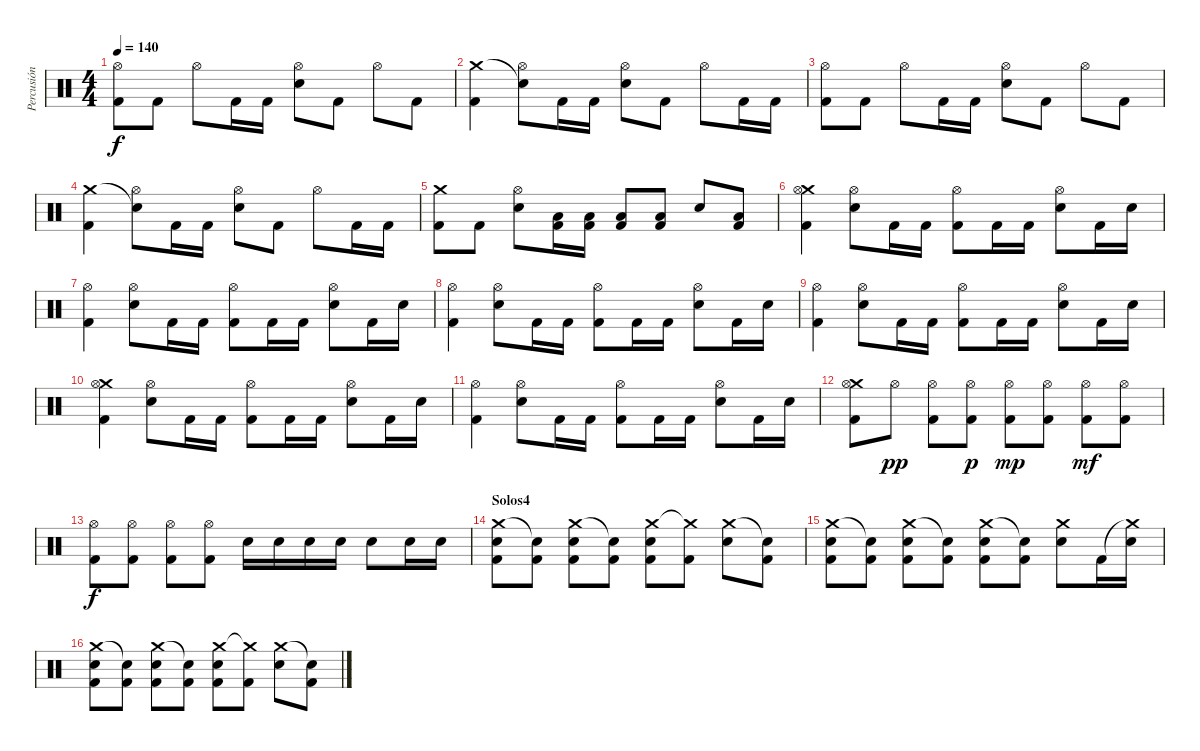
\track ("Percusión" "Percusión") {instrument percussion}
\staff {score}
\articulation defaults
\ts (4 4)
\tempo 140
\clef neutral
\ks c
("Hi-Hat (open)" "Kick (hit) 2").8{dy f} "Kick (hit) 2".8 "Hi-Hat (open)".8 "Kick (hit) 2".16 "Kick (hit) 2".16 ("Hi-Hat (open)" "Electric Snare (hit)").8 "Kick (hit) 2".8 "Hi-Hat (open)".8 "Kick (hit) 2".8 |
("Crash medium (hit)" "Kick (hit) 2").4 ("Snare (hit)"{t} "Hi-Hat (open)").8 "Kick (hit) 2".16 "Kick (hit) 2".16 ("Hi-Hat (open)" "Electric Snare (hit)").8 "Kick (hit) 2".8 "Hi-Hat (open)".8 "Kick (hit) 2".16 "Kick (hit) 2".16 |
("Hi-Hat (open)" "Kick (hit) 2").8 "Kick (hit) 2".8 "Hi-Hat (open)".8 "Kick (hit) 2".16 "Kick (hit) 2".16 ("Hi-Hat (open)" "Electric Snare (hit)").8 "Kick (hit) 2".8 "Hi-Hat (open)".8 "Kick (hit) 2".8 |
("Crash medium (hit)" "Kick (hit) 2").4 ("Snare (hit)"{t} "Hi-Hat (open)").8 "Kick (hit) 2".16 "Kick (hit) 2".16 ("Hi-Hat (open)" "Electric Snare (hit)").8 "Kick (hit) 2".8 "Hi-Hat (open)".8 "Kick (hit) 2".16 "Kick (hit) 2".16 |
("Crash medium (hit)" "Kick (hit) 2").8 "Kick (hit) 2".8 ("Hi-Hat (open)" "Electric Snare (hit)").8 ("Low Floor Tom (hit)" "Kick (hit) 2").16 ("Low Floor Tom (hit)" "Kick (hit) 2").16 ("Low Floor Tom (hit)" "Kick (hit) 2").8 ("Low Floor Tom (hit)" "Kick (hit) 2").8 "Electric Snare (hit)".8 ("Low Floor Tom (hit)" "Kick (hit) 2").8 |
("Crash medium (hit)" "Hi-Hat (open)" "Kick (hit) 2").4 ("Hi-Hat (open)" "Electric Snare (hit)").8 "Kick (hit) 2".16 "Kick (hit) 2".16 ("Hi-Hat (open)" "Kick (hit) 2").8 "Kick (hit) 2".16 "Kick (hit) 2".16 ("Hi-Hat (open)" "Electric Snare (hit)").8 "Kick (hit) 2".16 "Electric Snare (hit)".16 |
("Hi-Hat (open)" "Kick (hit) 2").4 ("Hi-Hat (open)" "Electric Snare (hit)").8 "Kick (hit) 2".16 "Kick (hit) 2".16 ("Hi-Hat (open)" "Kick (hit) 2").8 "Kick (hit) 2".16 "Kick (hit) 2".16 ("Hi-Hat (open)" "Electric Snare (hit)").8 "Kick (hit) 2".16 "Electric Snare (hit)".16 |
("Hi-Hat (open)" "Kick (hit) 2").4 ("Hi-Hat (open)" "Electric Snare (hit)").8 "Kick (hit) 2".16 "Kick (hit) 2".16 ("Hi-Hat (open)" "Kick (hit) 2").8 "Kick (hit) 2".16 "Kick (hit) 2".16 ("Hi-Hat (open)" "Electric Snare (hit)").8 "Kick (hit) 2".16 "Electric Snare (hit)".16 |
("Hi-Hat (open)" "Kick (hit) 2").4 ("Hi-Hat (open)" "Electric Snare (hit)").8 "Kick (hit) 2".16 "Kick (hit) 2".16 ("Hi-Hat (open)" "Kick (hit) 2").8 "Kick (hit) 2".16 "Kick (hit) 2".16 ("Hi-Hat (open)" "Electric Snare (hit)").8 "Kick (hit) 2".16 "Electric Snare (hit)".16 |
("Crash medium (hit)" "Hi-Hat (open)" "Kick (hit) 2").4 ("Hi-Hat (open)" "Electric Snare (hit)").8 "Kick (hit) 2".16 "Kick (hit) 2".16 ("Hi-Hat (open)" "Kick (hit) 2").8 "Kick (hit) 2".16 "Kick (hit) 2".16 ("Hi-Hat (open)" "Electric Snare (hit)").8 "Kick (hit) 2".16 "Electric Snare (hit)".16 |
("Hi-Hat (open)" "Kick (hit) 2").4 ("Hi-Hat (open)" "Electric Snare (hit)").8 "Kick (hit) 2".16 "Kick (hit) 2".16 ("Hi-Hat (open)" "Kick (hit) 2").8 "Kick (hit) 2".16 "Kick (hit) 2".16 ("Hi-Hat (open)" "Electric Snare (hit)").8 "Kick (hit) 2".16 "Electric Snare (hit)".16 |
("Crash medium (hit)" "Hi-Hat (open)" "Kick (hit) 2").8 "Hi-Hat (open)".8{dy pp} ("Hi-Hat (open)" "Kick (hit) 2").8 ("Hi-Hat (open)" "Kick (hit) 2").8{dy p} ("Hi-Hat (open)" "Kick (hit) 2").8{dy mp} ("Hi-Hat (open)" "Kick (hit) 2").8 ("Hi-Hat (open)" "Kick (hit) 2").8{dy mf} ("Hi-Hat (open)" "Kick (hit) 2").8 |
("Hi-Hat (open)" "Kick (hit) 2").8{dy f} ("Hi-Hat (open)" "Kick (hit) 2").8 ("Hi-Hat (open)" "Kick (hit) 2").8 ("Hi-Hat (open)" "Kick (hit) 2").8 "Electric Snare (hit)".16 "Electric Snare (hit)".16 "Electric Snare (hit)".16 "Electric Snare (hit)".16 "Electric Snare (hit)".8 "Electric Snare (hit)".16 "Electric Snare (hit)".16 |
\section ("" "Solos4")
("Crash medium (hit)" "Electric Snare (hit)" "Kick (hit) 2").8 ("Snare (hit)"{t} "Kick (hit) 2").8 ("Crash medium (hit)" "Electric Snare (hit)" "Kick (hit) 2").8 ("Snare (hit)"{t} "Kick (hit) 2").8 ("Crash medium (hit)" "Electric Snare (hit)" "Kick (hit) 2").8 ("Crash medium (hit)"{t} "Kick (hit) 2").8 ("Crash medium (hit)" "Electric Snare (hit)").8 ("Snare (hit)"{t} "Kick (hit) 2").8 |
("Crash medium (hit)" "Electric Snare (hit)" "Kick (hit) 2").8 ("Snare (hit)"{t} "Kick (hit) 2").8 ("Crash medium (hit)" "Electric Snare (hit)" "Kick (hit) 2").8 ("Snare (hit)"{t} "Kick (hit) 2").8 ("Crash medium (hit)" "Electric Snare (hit)" "Kick (hit) 2").8 ("Snare (hit)"{t} "Kick (hit) 2").8 ("Crash medium (hit)" "Electric Snare (hit)").8 "Kick (hit) 2".16 ("Crash medium (hit)"{t} "Electric Snare (hit)").16 |
("Crash medium (hit)" "Electric Snare (hit)" "Kick (hit) 2").8 ("Snare (hit)"{t} "Kick (hit) 2").8 ("Crash medium (hit)" "Electric Snare (hit)" "Kick (hit) 2").8 ("Snare (hit)"{t} "Kick (hit) 2").8 ("Crash medium (hit)" "Electric Snare (hit)" "Kick (hit) 2").8 ("Crash medium (hit)"{t} "Kick (hit) 2").8 ("Crash medium (hit)" "Electric Snare (hit)").8 ("Snare (hit)"{t} "Kick (hit) 2").8
